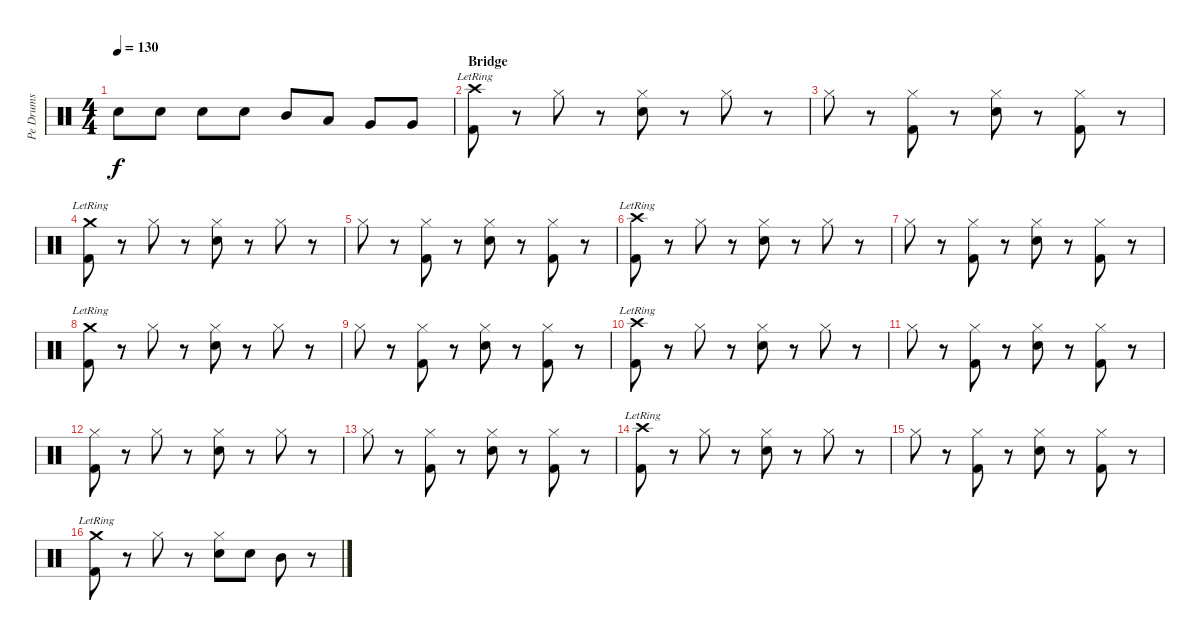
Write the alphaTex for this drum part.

\track ("Pe Drums" "Pe Drums") {instrument percussion}
\staff {score}
\articulation defaults
\ts (4 4)
\tempo 130
\clef neutral
\ks c "Electric Snare (hit)".8{dy f} "Electric Snare (hit)".8 "Electric Snare (hit)".8 "Electric Snare (hit)".8 "Mid Tom (hit)".8 "Low Tom (hit)".8 "Very Low Tom (hit)".8 "Very Low Tom (hit)".8
|
\section ("" "Bridge")
("Crash high (hit)"{lr} "Kick (hit) 2").8 r.8 "Hi-Hat (closed)".8 r.8 ("Hi-Hat (closed)" "Electric Snare (hit)").8 r.8 "Hi-Hat (closed)".8 r.8 |
"Hi-Hat (closed)".8 r.8 ("Hi-Hat (closed)" "Kick (hit) 2").8 r.8 ("Hi-Hat (closed)" "Electric Snare (hit)").8 r.8 ("Hi-Hat (closed)" "Kick (hit) 2").8 r.8 |
("Crash medium (hit)"{lr} "Kick (hit) 2").8 r.8 "Hi-Hat (closed)".8 r.8 ("Hi-Hat (closed)" "Electric Snare (hit)").8 r.8 "Hi-Hat (closed)".8 r.8 |
"Hi-Hat (closed)".8 r.8 ("Hi-Hat (closed)" "Kick (hit) 2").8 r.8 ("Hi-Hat (closed)" "Electric Snare (hit)").8 r.8 ("Hi-Hat (closed)" "Kick (hit) 2").8 r.8 |
("Crash high (hit)"{lr} "Kick (hit) 2").8 r.8 "Hi-Hat (closed)".8 r.8 ("Hi-Hat (closed)" "Electric Snare (hit)").8 r.8 "Hi-Hat (closed)".8 r.8 |
"Hi-Hat (closed)".8 r.8 ("Hi-Hat (closed)" "Kick (hit) 2").8 r.8 ("Hi-Hat (closed)" "Electric Snare (hit)").8 r.8 ("Hi-Hat (closed)" "Kick (hit) 2").8 r.8 |
("Crash medium (hit)"{lr} "Kick (hit) 2").8 r.8 "Hi-Hat (closed)".8 r.8 ("Hi-Hat (closed)" "Electric Snare (hit)").8 r.8 "Hi-Hat (closed)".8 r.8 |
"Hi-Hat (closed)".8 r.8 ("Hi-Hat (closed)" "Kick (hit) 2").8 r.8 ("Hi-Hat (closed)" "Electric Snare (hit)").8 r.8 ("Hi-Hat (closed)" "Kick (hit) 2").8 r.8 |
("Crash high (hit)"{lr} "Kick (hit) 2").8 r.8 "Hi-Hat (closed)".8 r.8 ("Hi-Hat (closed)" "Electric Snare (hit)").8 r.8 "Hi-Hat (closed)".8 r.8 |
"Hi-Hat (closed)".8 r.8 ("Hi-Hat (closed)" "Kick (hit) 2").8 r.8 ("Hi-Hat (closed)" "Electric Snare (hit)").8 r.8 ("Hi-Hat (closed)" "Kick (hit) 2").8 r.8 |
("Hi-Hat (closed)" "Kick (hit) 2").8 r.8 "Hi-Hat (closed)".8 r.8 ("Hi-Hat (closed)" "Electric Snare (hit)").8 r.8 "Hi-Hat (closed)".8 r.8 |
"Hi-Hat (closed)".8 r.8 ("Hi-Hat (closed)" "Kick (hit) 2").8 r.8 ("Hi-Hat (closed)" "Electric Snare (hit)").8 r.8 ("Hi-Hat (closed)" "Kick (hit) 2").8 r.8 |
("Crash high (hit)"{lr} "Kick (hit) 2").8 r.8 "Hi-Hat (closed)".8 r.8 ("Hi-Hat (closed)" "Electric Snare (hit)").8 r.8 "Hi-Hat (closed)".8 r.8 |
"Hi-Hat (closed)".8 r.8 ("Hi-Hat (closed)" "Kick (hit) 2").8 r.8 ("Hi-Hat (closed)" "Electric Snare (hit)").8 r.8 ("Hi-Hat (closed)" "Kick (hit) 2").8 r.8 |
("Crash medium (hit)"{lr} "Kick (hit) 2").8 r.8 "Hi-Hat (closed)".8 r.8 ("Hi-Hat (closed)" "Electric Snare (hit)").8 "Electric Snare (hit)".8 "Mid Tom (hit)".8 r.8
